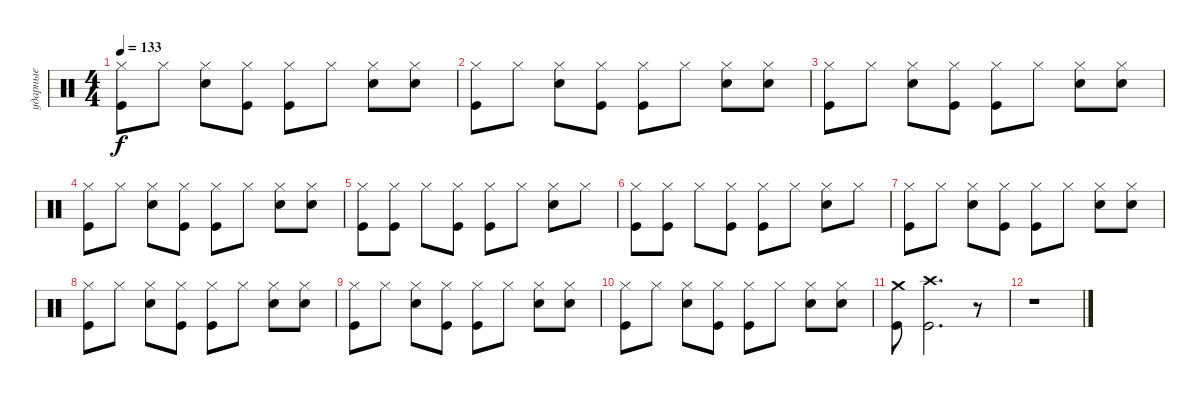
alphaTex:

\track ("ударные" "ударные") {instrument percussion}
\staff {score}
\articulation defaults
\ts (4 4)
\tempo 133
\clef neutral
\ks c
("Kick (hit)" "Hi-Hat (closed)").8{dy f} "Hi-Hat (closed)".8 ("Snare (hit) 2" "Hi-Hat (closed)").8 ("Hi-Hat (closed)" "Kick (hit)").8 ("Kick (hit)" "Hi-Hat (closed)").8 "Hi-Hat (closed)".8 ("Hi-Hat (closed)" "Snare (hit) 2").8 ("Snare (hit) 2" "Hi-Hat (closed)").8 |
("Kick (hit)" "Hi-Hat (closed)").8 "Hi-Hat (closed)".8 ("Snare (hit) 2" "Hi-Hat (closed)").8 ("Hi-Hat (closed)" "Kick (hit)").8 ("Kick (hit)" "Hi-Hat (closed)").8 "Hi-Hat (closed)".8 ("Hi-Hat (closed)" "Snare (hit) 2").8 ("Snare (hit) 2" "Hi-Hat (closed)").8 |
("Kick (hit)" "Hi-Hat (closed)").8 "Hi-Hat (closed)".8 ("Snare (hit) 2" "Hi-Hat (closed)").8 ("Hi-Hat (closed)" "Kick (hit)").8 ("Kick (hit)" "Hi-Hat (closed)").8 "Hi-Hat (closed)".8 ("Hi-Hat (closed)" "Snare (hit) 2").8 ("Snare (hit) 2" "Hi-Hat (closed)").8 |
("Kick (hit)" "Hi-Hat (closed)").8 "Hi-Hat (closed)".8 ("Snare (hit) 2" "Hi-Hat (closed)").8 ("Hi-Hat (closed)" "Kick (hit)").8 ("Kick (hit)" "Hi-Hat (closed)").8 "Hi-Hat (closed)".8 ("Hi-Hat (closed)" "Snare (hit) 2").8 ("Snare (hit) 2" "Hi-Hat (closed)").8 |
("Kick (hit)" "Hi-Hat (closed)").8 ("Kick (hit)" "Hi-Hat (closed)").8 "Hi-Hat (closed)".8 ("Kick (hit)" "Hi-Hat (closed)").8 ("Hi-Hat (closed)" "Kick (hit)").8 "Hi-Hat (closed)".8 ("Snare (hit) 2" "Hi-Hat (closed)").8 "Hi-Hat (closed)".8 |
("Kick (hit)" "Hi-Hat (closed)").8 ("Kick (hit)" "Hi-Hat (closed)").8 "Hi-Hat (closed)".8 ("Kick (hit)" "Hi-Hat (closed)").8 ("Hi-Hat (closed)" "Kick (hit)").8 "Hi-Hat (closed)".8 ("Snare (hit) 2" "Hi-Hat (closed)").8 "Hi-Hat (closed)".8 |
("Kick (hit)" "Hi-Hat (closed)").8 "Hi-Hat (closed)".8 ("Snare (hit) 2" "Hi-Hat (closed)").8 ("Hi-Hat (closed)" "Kick (hit)").8 ("Kick (hit)" "Hi-Hat (closed)").8 "Hi-Hat (closed)".8 ("Hi-Hat (closed)" "Snare (hit) 2").8 ("Snare (hit) 2" "Hi-Hat (closed)").8 |
("Kick (hit)" "Hi-Hat (closed)").8 "Hi-Hat (closed)".8 ("Snare (hit) 2" "Hi-Hat (closed)").8 ("Hi-Hat (closed)" "Kick (hit)").8 ("Kick (hit)" "Hi-Hat (closed)").8 "Hi-Hat (closed)".8 ("Hi-Hat (closed)" "Snare (hit) 2").8 ("Snare (hit) 2" "Hi-Hat (closed)").8 |
("Kick (hit)" "Hi-Hat (closed)").8 "Hi-Hat (closed)".8 ("Snare (hit) 2" "Hi-Hat (closed)").8 ("Hi-Hat (closed)" "Kick (hit)").8 ("Kick (hit)" "Hi-Hat (closed)").8 "Hi-Hat (closed)".8 ("Hi-Hat (closed)" "Snare (hit) 2").8 ("Snare (hit) 2" "Hi-Hat (closed)").8 |
("Kick (hit)" "Hi-Hat (closed)").8 "Hi-Hat (closed)".8 ("Snare (hit) 2" "Hi-Hat (closed)").8 ("Hi-Hat (closed)" "Kick (hit)").8 ("Kick (hit)" "Hi-Hat (closed)").8 "Hi-Hat (closed)".8 ("Hi-Hat (closed)" "Snare (hit) 2").8 ("Snare (hit) 2" "Hi-Hat (closed)").8 |
("Kick (hit)" "Crash medium (hit)").8 ("Kick (hit)" "Crash high (hit)").2{d} r.8 |
r.1
